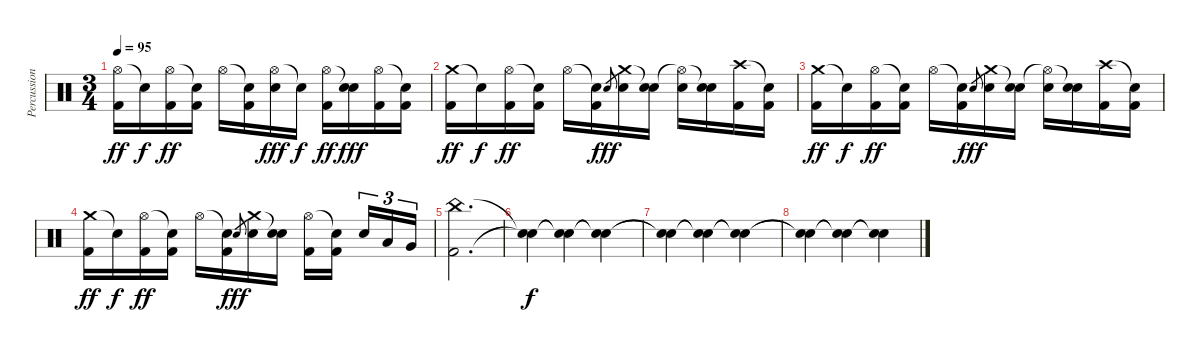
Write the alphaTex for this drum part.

\track ("Percussioni" "Percussion") {instrument percussion}
\staff {score}
\articulation defaults
\ts (3 4)
\tempo 95
\clef neutral
\ks c
("Hi-Hat (open)" "Kick (hit) 2").16{dy ff} "Snare (hit)"{t}.16{dy f} ("Hi-Hat (open)" "Kick (hit) 2").16{dy ff} ("Snare (hit)"{t} "Kick (hit) 2").16 "Hi-Hat (open)".16 ("Snare (hit)"{t} "Kick (hit) 2").16 ("Hi-Hat (open)" "Electric Snare (hit)").16{dy fff} "Snare (hit)"{t}.16{dy f} ("Hi-Hat (open)" "Kick (hit) 2").16{dy ff} ("Snare (hit)"{t} "Electric Snare (hit)").16{dy fff} ("Hi-Hat (open)" "Kick (hit) 2").16 ("Snare (hit)"{t} "Kick (hit) 2").16 |
("Crash medium (hit)" "Kick (hit) 2").16{dy ff} "Snare (hit)"{t}.16{dy f} ("Hi-Hat (open)" "Kick (hit) 2").16{dy ff} ("Snare (hit)"{t} "Kick (hit) 2").16 "Hi-Hat (open)".16 ("Snare (hit)"{t} "Kick (hit) 2").16 "Electric Snare (hit)".8{gr dy fff} ("Crash medium (hit)" "Electric Snare (hit)").16 ("Snare (hit)"{t} "Electric Snare (hit)").16 ("Hi-Hat (open)"{t} "Electric Snare (hit)").16 ("Snare (hit)"{t} "Electric Snare (hit)").16 ("Crash high (hit)" "Kick (hit) 2").16 ("Snare (hit)"{t} "Kick (hit) 2").16 |
("Crash medium (hit)" "Kick (hit) 2").16{dy ff} "Snare (hit)"{t}.16{dy f} ("Hi-Hat (open)" "Kick (hit) 2").16{dy ff} ("Snare (hit)"{t} "Kick (hit) 2").16 "Hi-Hat (open)".16 ("Snare (hit)"{t} "Kick (hit) 2").16 "Electric Snare (hit)".8{gr dy fff} ("Crash medium (hit)" "Electric Snare (hit)").16 ("Snare (hit)"{t} "Electric Snare (hit)").16 ("Hi-Hat (open)"{t} "Electric Snare (hit)").16 ("Snare (hit)"{t} "Electric Snare (hit)").16 ("Crash high (hit)" "Kick (hit) 2").16 ("Snare (hit)"{t} "Kick (hit) 2").16 |
("Crash medium (hit)" "Kick (hit) 2").16{dy ff} "Snare (hit)"{t}.16{dy f} ("Hi-Hat (open)" "Kick (hit) 2").16{dy ff} ("Snare (hit)"{t} "Kick (hit) 2").16 "Hi-Hat (open)".16 ("Snare (hit)"{t} "Kick (hit) 2").16 "Electric Snare (hit)".8{gr dy fff} ("Crash medium (hit)" "Electric Snare (hit)").16 ("Snare (hit)"{t} "Electric Snare (hit)").16 ("Hi-Hat (open)" "Kick (hit) 2").16 ("Snare (hit)"{t} "Kick (hit) 2").16{beam splitsecondary} "Electric Snare (hit)".16{tu (3 2)} "Low Tom (hit)".16{tu (3 2)} "Very Low Tom (hit)".16{tu (3 2)} |
("China (hit)" "Kick (hit) 2").2{d} |
("Snare (hit)"{t} "Snare (hit)"{t}).4{dy f} ("Snare (hit)"{t} "Snare (hit)"{t}).4 ("Snare (hit)"{t} "Snare (hit)"{t}).4 |
("Snare (hit)"{t} "Snare (hit)"{t}).4 ("Snare (hit)"{t} "Snare (hit)"{t}).4 ("Snare (hit)"{t} "Snare (hit)"{t}).4 |
("Snare (hit)"{t} "Snare (hit)"{t}).4 ("Snare (hit)"{t} "Snare (hit)"{t}).4 ("Snare (hit)"{t} "Snare (hit)"{t}).4
